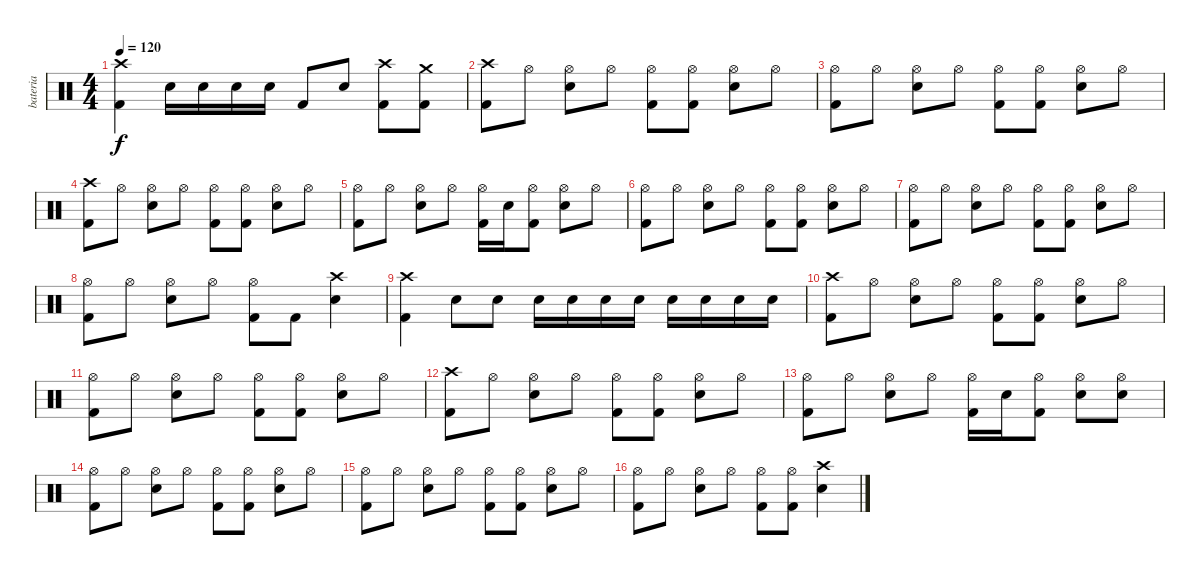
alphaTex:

\track ("bateria" "bateria") {instrument percussion}
\staff {score}
\articulation defaults
\ts (4 4)
\tempo 120
\clef neutral
\ks c
("Crash high (hit)" "Kick (hit) 2").4{dy f} "Electric Snare (hit)".16 "Electric Snare (hit)".16 "Electric Snare (hit)".16 "Electric Snare (hit)".16 "Kick (hit) 2".8 "Electric Snare (hit)".8 ("Crash high (hit)" "Kick (hit) 2").8 ("Crash medium (hit)" "Kick (hit) 2").8 |
("Crash high (hit)" "Kick (hit) 2").8 "Hi-Hat (open)".8 ("Electric Snare (hit)" "Hi-Hat (open)").8 "Hi-Hat (open)".8 ("Kick (hit) 2" "Hi-Hat (open)").8 ("Kick (hit) 2" "Hi-Hat (open)").8 ("Electric Snare (hit)" "Hi-Hat (open)").8 "Hi-Hat (open)".8 |
("Kick (hit) 2" "Hi-Hat (open)").8 "Hi-Hat (open)".8 ("Electric Snare (hit)" "Hi-Hat (open)").8 "Hi-Hat (open)".8 ("Kick (hit) 2" "Hi-Hat (open)").8 ("Kick (hit) 2" "Hi-Hat (open)").8 ("Electric Snare (hit)" "Hi-Hat (open)").8 "Hi-Hat (open)".8 |
("Crash high (hit)" "Kick (hit) 2").8 "Hi-Hat (open)".8 ("Electric Snare (hit)" "Hi-Hat (open)").8 "Hi-Hat (open)".8 ("Kick (hit) 2" "Hi-Hat (open)").8 ("Kick (hit) 2" "Hi-Hat (open)").8 ("Electric Snare (hit)" "Hi-Hat (open)").8 "Hi-Hat (open)".8 |
("Kick (hit) 2" "Hi-Hat (open)").8 "Hi-Hat (open)".8 ("Electric Snare (hit)" "Hi-Hat (open)").8 "Hi-Hat (open)".8 ("Kick (hit) 2" "Hi-Hat (open)").16 "Electric Snare (hit)".16 ("Kick (hit) 2" "Hi-Hat (open)").8 ("Electric Snare (hit)" "Hi-Hat (open)").8 "Hi-Hat (open)".8 |
("Kick (hit) 2" "Hi-Hat (open)").8 "Hi-Hat (open)".8 ("Electric Snare (hit)" "Hi-Hat (open)").8 "Hi-Hat (open)".8 ("Kick (hit) 2" "Hi-Hat (open)").8 ("Kick (hit) 2" "Hi-Hat (open)").8 ("Electric Snare (hit)" "Hi-Hat (open)").8 "Hi-Hat (open)".8 |
("Kick (hit) 2" "Hi-Hat (open)").8 "Hi-Hat (open)".8 ("Electric Snare (hit)" "Hi-Hat (open)").8 "Hi-Hat (open)".8 ("Kick (hit) 2" "Hi-Hat (open)").8 ("Kick (hit) 2" "Hi-Hat (open)").8 ("Electric Snare (hit)" "Hi-Hat (open)").8 "Hi-Hat (open)".8 |
("Kick (hit) 2" "Hi-Hat (open)").8 "Hi-Hat (open)".8 ("Electric Snare (hit)" "Hi-Hat (open)").8 "Hi-Hat (open)".8 ("Kick (hit) 2" "Hi-Hat (open)").8 "Kick (hit) 2".8 ("Crash high (hit)" "Electric Snare (hit)").4 |
("Crash high (hit)" "Kick (hit) 2").4 "Electric Snare (hit)".8 "Electric Snare (hit)".8 "Electric Snare (hit)".16 "Electric Snare (hit)".16 "Electric Snare (hit)".16 "Electric Snare (hit)".16 "Electric Snare (hit)".16 "Electric Snare (hit)".16 "Electric Snare (hit)".16 "Electric Snare (hit)".16 |
("Crash high (hit)" "Kick (hit) 2").8 "Hi-Hat (open)".8 ("Electric Snare (hit)" "Hi-Hat (open)").8 "Hi-Hat (open)".8 ("Kick (hit) 2" "Hi-Hat (open)").8 ("Kick (hit) 2" "Hi-Hat (open)").8 ("Electric Snare (hit)" "Hi-Hat (open)").8 "Hi-Hat (open)".8 |
("Kick (hit) 2" "Hi-Hat (open)").8 "Hi-Hat (open)".8 ("Electric Snare (hit)" "Hi-Hat (open)").8 "Hi-Hat (open)".8 ("Kick (hit) 2" "Hi-Hat (open)").8 ("Kick (hit) 2" "Hi-Hat (open)").8 ("Electric Snare (hit)" "Hi-Hat (open)").8 "Hi-Hat (open)".8 |
("Crash high (hit)" "Kick (hit) 2").8 "Hi-Hat (open)".8 ("Electric Snare (hit)" "Hi-Hat (open)").8 "Hi-Hat (open)".8 ("Kick (hit) 2" "Hi-Hat (open)").8 ("Kick (hit) 2" "Hi-Hat (open)").8 ("Electric Snare (hit)" "Hi-Hat (open)").8 "Hi-Hat (open)".8 |
("Kick (hit) 2" "Hi-Hat (open)").8 "Hi-Hat (open)".8 ("Electric Snare (hit)" "Hi-Hat (open)").8 "Hi-Hat (open)".8 ("Kick (hit) 2" "Hi-Hat (open)").16 "Electric Snare (hit)".16 ("Kick (hit) 2" "Hi-Hat (open)").8 ("Electric Snare (hit)" "Hi-Hat (open)").8 ("Electric Snare (hit)" "Hi-Hat (open)").8 |
("Kick (hit) 2" "Hi-Hat (open)").8 "Hi-Hat (open)".8 ("Electric Snare (hit)" "Hi-Hat (open)").8 "Hi-Hat (open)".8 ("Kick (hit) 2" "Hi-Hat (open)").8 ("Kick (hit) 2" "Hi-Hat (open)").8 ("Electric Snare (hit)" "Hi-Hat (open)").8 "Hi-Hat (open)".8 |
("Kick (hit) 2" "Hi-Hat (open)").8 "Hi-Hat (open)".8 ("Electric Snare (hit)" "Hi-Hat (open)").8 "Hi-Hat (open)".8 ("Kick (hit) 2" "Hi-Hat (open)").8 ("Kick (hit) 2" "Hi-Hat (open)").8 ("Electric Snare (hit)" "Hi-Hat (open)").8 "Hi-Hat (open)".8 |
("Kick (hit) 2" "Hi-Hat (open)").8 "Hi-Hat (open)".8 ("Electric Snare (hit)" "Hi-Hat (open)").8 "Hi-Hat (open)".8 ("Kick (hit) 2" "Hi-Hat (open)").8 ("Kick (hit) 2" "Hi-Hat (open)").8 ("Crash high (hit)" "Electric Snare (hit)").4
